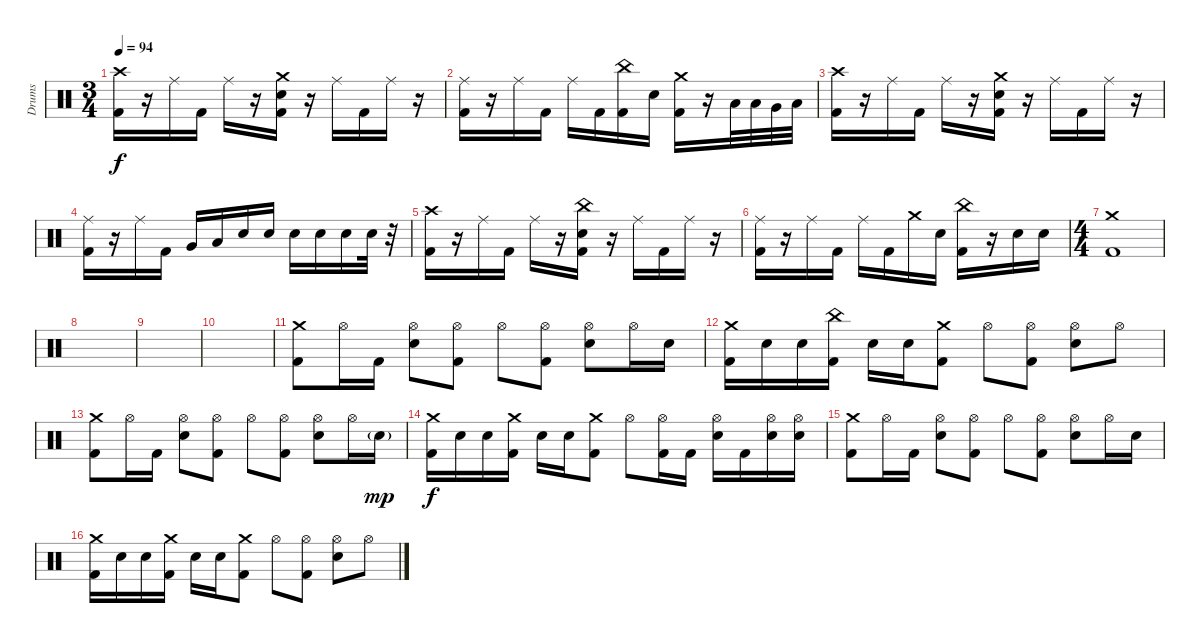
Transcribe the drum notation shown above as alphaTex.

\track ("Drums" "Drums") {instrument percussion}
\staff {score}
\articulation defaults
\ts (3 4)
\tempo 94
\clef neutral
\ks c
("Crash high (hit)" "Kick (hit) 2").16{dy f} r.16 "Ride (middle)".16 "Kick (hit) 2".16 "Ride (middle)".16 r.16 ("Crash medium (hit)" "Electric Snare (hit)" "Kick (hit) 2").16 r.16 "Ride (middle)".16 "Kick (hit) 2".16 "Ride (middle)".16 r.16 |
("Ride (middle)" "Kick (hit) 2").16 r.16 "Ride (middle)".16 "Kick (hit) 2".16 "Ride (middle)".16 "Kick (hit) 2".16 ("China (hit)" "Kick (hit) 2").16 "Electric Snare (hit)".16 ("Crash medium (hit)" "Kick (hit) 2").16 r.16 "Low Tom (hit)".32 "Low Tom (hit)".32 "Very Low Tom (hit)".32 "Low Floor Tom (hit)".32 |
("Crash high (hit)" "Kick (hit) 2").16 r.16 "Ride (middle)".16 "Kick (hit) 2".16 "Ride (middle)".16 r.16 ("Crash medium (hit)" "Electric Snare (hit)" "Kick (hit) 2").16 r.16 "Ride (middle)".16 "Kick (hit) 2".16 "Ride (middle)".16 r.16 |
("Ride (middle)" "Kick (hit) 2").16 r.16 "Ride (middle)".16 "Kick (hit) 2".16 "Very Low Tom (hit)".16 "Low Tom (hit)".16 "Electric Snare (hit)".16 "Electric Snare (hit)".16 "Electric Snare (hit)".16 "Electric Snare (hit)".16 "Electric Snare (hit)".16 "Electric Snare (hit)".32 r.32 |
("Crash high (hit)" "Kick (hit) 2").16 r.16 "Ride (middle)".16 "Kick (hit) 2".16 "Ride (middle)".16 r.16 ("China (hit)" "Electric Snare (hit)" "Kick (hit) 2").16 r.16 "Ride (middle)".16 "Kick (hit) 2".16 "Ride (middle)".16 r.16 |
("Ride (middle)" "Kick (hit) 2").16 r.16 "Ride (middle)".16 "Kick (hit) 2".16 "Ride (middle)".16 "Kick (hit) 2".16 "Crash medium (hit)".16 "Electric Snare (hit)".16 ("China (hit)" "Kick (hit) 2").16 r.16 "Electric Snare (hit)".16 "Electric Snare (hit)".16 |
\ts (4 4)
("Crash medium (hit)" "Kick (hit) 2").1 |
|
|
|
("Crash medium (hit)" "Kick (hit) 2").8 "Hi-Hat (open)".16 "Kick (hit) 2".16 ("Hi-Hat (open)" "Electric Snare (hit)").8 ("Hi-Hat (open)" "Kick (hit) 2").8 "Hi-Hat (open)".8 ("Hi-Hat (open)" "Kick (hit) 2").8 ("Hi-Hat (open)" "Electric Snare (hit)").8 "Hi-Hat (open)".16 "Electric Snare (hit)".16 |
("Crash medium (hit)" "Kick (hit) 2").16 "Electric Snare (hit)".16 "Electric Snare (hit)".16 ("China (hit)" "Kick (hit) 2").16 "Electric Snare (hit)".16 "Electric Snare (hit)".16 ("Crash medium (hit)" "Kick (hit) 2").8 "Hi-Hat (open)".8 ("Hi-Hat (open)" "Kick (hit) 2").8 ("Hi-Hat (open)" "Electric Snare (hit)").8 "Hi-Hat (open)".8 |
("Crash medium (hit)" "Kick (hit) 2").8 "Hi-Hat (open)".16 "Kick (hit) 2".16 ("Hi-Hat (open)" "Electric Snare (hit)").8 ("Hi-Hat (open)" "Kick (hit) 2").8 "Hi-Hat (open)".8 ("Hi-Hat (open)" "Kick (hit) 2").8 ("Hi-Hat (open)" "Electric Snare (hit)").8 "Hi-Hat (open)".16 "Electric Snare (hit)"{g}.16{dy mp} |
("Crash medium (hit)" "Kick (hit) 2").16{dy f} "Electric Snare (hit)".16 "Electric Snare (hit)".16 ("Crash medium (hit)" "Kick (hit) 2").16 "Electric Snare (hit)".16 "Electric Snare (hit)".16 ("Crash medium (hit)" "Kick (hit) 2").8 "Hi-Hat (open)".8 ("Hi-Hat (open)" "Kick (hit) 2").16 "Kick (hit) 2".16 ("Hi-Hat (open)" "Electric Snare (hit)").16 "Kick (hit) 2".16 ("Hi-Hat (open)" "Electric Snare (hit)").16 ("Hi-Hat (open)" "Electric Snare (hit)").16 |
("Crash medium (hit)" "Kick (hit) 2").8 "Hi-Hat (open)".16 "Kick (hit) 2".16 ("Hi-Hat (open)" "Electric Snare (hit)").8 ("Hi-Hat (open)" "Kick (hit) 2").8 "Hi-Hat (open)".8 ("Hi-Hat (open)" "Kick (hit) 2").8 ("Hi-Hat (open)" "Electric Snare (hit)").8 "Hi-Hat (open)".16 "Electric Snare (hit)".16 |
("Crash medium (hit)" "Kick (hit) 2").16 "Electric Snare (hit)".16 "Electric Snare (hit)".16 ("Crash medium (hit)" "Kick (hit) 2").16 "Electric Snare (hit)".16 "Electric Snare (hit)".16 ("Crash medium (hit)" "Kick (hit) 2").8 "Hi-Hat (open)".8 ("Hi-Hat (open)" "Kick (hit) 2").8 ("Hi-Hat (open)" "Electric Snare (hit)").8 "Hi-Hat (open)".8
